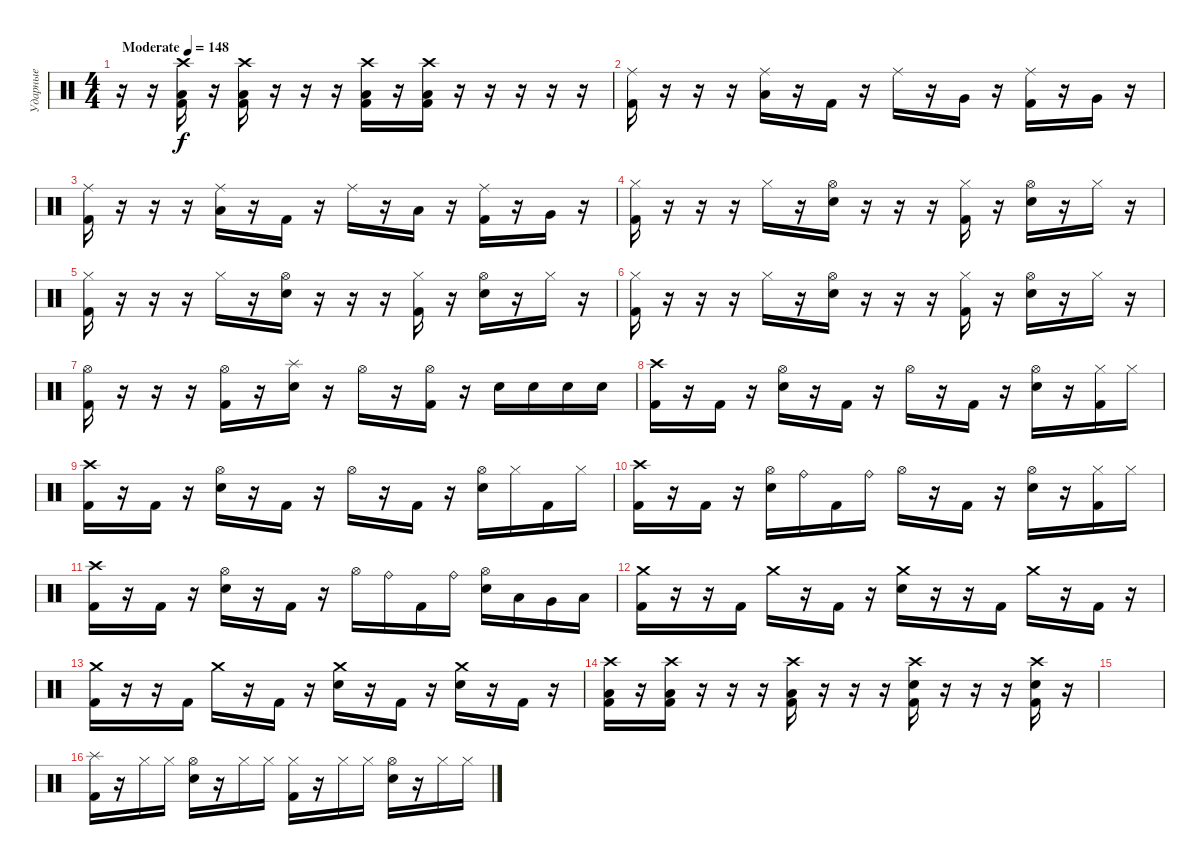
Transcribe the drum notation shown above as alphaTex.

\track ("Ударные" "Ударные") {instrument percussion}
\staff {score}
\articulation defaults
\ts (4 4)
\tempo (148 "Moderate")
\clef neutral
\ks c
r.16{dy f} r.16 ("Crash high (hit)" "Low Tom (hit)" "Kick (hit) 2").16 r.16 ("Crash high (hit)" "Low Tom (hit)" "Kick (hit) 2").16 r.16 r.16 r.16 ("Crash high (hit)" "Low Tom (hit)" "Kick (hit) 2").16 r.16 ("Crash high (hit)" "Low Tom (hit)" "Kick (hit) 2").16 r.16 r.16 r.16 r.16 r.16 |
("Ride (middle)" "Kick (hit) 2").16 r.16 r.16 r.16 ("Ride (middle)" "Low Floor Tom (hit)").16 r.16 "Kick (hit) 2".16 r.16 "Ride (middle)".16 r.16 "Very Low Tom (hit)".16 r.16 ("Ride (middle)" "Kick (hit) 2").16 r.16 "Very Low Tom (hit)".16 r.16 |
("Ride (middle)" "Kick (hit) 2").16 r.16 r.16 r.16 ("Ride (middle)" "Low Floor Tom (hit)").16 r.16 "Kick (hit) 2".16 r.16 "Ride (middle)".16 r.16 "Low Tom (hit)".16 r.16 ("Ride (middle)" "Kick (hit) 2").16 r.16 "Very Low Tom (hit)".16 r.16 |
("Hi-Hat (closed)" "Kick (hit) 2").16 r.16 r.16 r.16 "Hi-Hat (closed)".16 r.16 ("Hi-Hat (open)" "Electric Snare (hit)").16 r.16 r.16 r.16 ("Hi-Hat (closed)" "Kick (hit) 2").16 r.16 ("Hi-Hat (open)" "Electric Snare (hit)").16 r.16 "Hi-Hat (closed)".16 r.16 |
("Hi-Hat (closed)" "Kick (hit) 2").16 r.16 r.16 r.16 "Hi-Hat (closed)".16 r.16 ("Hi-Hat (open)" "Electric Snare (hit)").16 r.16 r.16 r.16 ("Hi-Hat (closed)" "Kick (hit) 2").16 r.16 ("Hi-Hat (open)" "Electric Snare (hit)").16 r.16 "Hi-Hat (closed)".16 r.16 |
("Hi-Hat (closed)" "Kick (hit) 2").16 r.16 r.16 r.16 "Hi-Hat (closed)".16 r.16 ("Hi-Hat (open)" "Electric Snare (hit)").16 r.16 r.16 r.16 ("Hi-Hat (closed)" "Kick (hit) 2").16 r.16 ("Hi-Hat (open)" "Electric Snare (hit)").16 r.16 "Hi-Hat (closed)".16 r.16 |
("Hi-Hat (open)" "Kick (hit) 2").16 r.16 r.16 r.16 ("Hi-Hat (open)" "Kick (hit) 2").16 r.16 ("Splash (hit)" "Electric Snare (hit)").16 r.16 "Hi-Hat (open)".16 r.16 ("Hi-Hat (open)" "Kick (hit) 2").16 r.16 "Electric Snare (hit)".16 "Electric Snare (hit)".16 "Electric Snare (hit)".16 "Electric Snare (hit)".16 |
("Crash high (hit)" "Kick (hit) 2").16 r.16 "Kick (hit) 2".16 r.16 ("Hi-Hat (open)" "Electric Snare (hit)").16 r.16 "Kick (hit) 2".16 r.16 "Hi-Hat (open)".16 r.16 "Kick (hit) 2".16 r.16 ("Hi-Hat (open)" "Electric Snare (hit)").16 r.16 ("Hi-Hat (closed)" "Kick (hit) 2").16 "Hi-Hat (closed)".16 |
("Crash high (hit)" "Kick (hit) 2").16 r.16 "Kick (hit) 2".16 r.16 ("Hi-Hat (open)" "Electric Snare (hit)").16 r.16 "Kick (hit) 2".16 r.16 "Hi-Hat (open)".16 r.16 "Kick (hit) 2".16 r.16 ("Hi-Hat (open)" "Electric Snare (hit)").16 "Hi-Hat (closed)".16 "Kick (hit) 2".16 "Hi-Hat (closed)".16 |
("Crash high (hit)" "Kick (hit) 2").16 r.16 "Kick (hit) 2".16 r.16 ("Hi-Hat (open)" "Electric Snare (hit)").16 "Ride (bell)".16 "Kick (hit) 2".16 "Ride (bell)".16 "Hi-Hat (open)".16 r.16 "Kick (hit) 2".16 r.16 ("Hi-Hat (open)" "Electric Snare (hit)").16 r.16 ("Hi-Hat (closed)" "Kick (hit) 2").16 "Hi-Hat (closed)".16 |
("Crash high (hit)" "Kick (hit) 2").16 r.16 "Kick (hit) 2".16 r.16 ("Hi-Hat (open)" "Electric Snare (hit)").16 r.16 "Kick (hit) 2".16 r.16 "Hi-Hat (open)".16 "Ride (bell)".16 "Kick (hit) 2".16 "Ride (bell)".16 ("Hi-Hat (open)" "Electric Snare (hit)").16 "Low Tom (hit)".16 "Very Low Tom (hit)".16 "Low Floor Tom (hit)".16 |
("Crash medium (hit)" "Kick (hit) 2").16 r.16 r.16 "Kick (hit) 2".16 "Crash medium (hit)".16 r.16 "Kick (hit) 2".16 r.16 ("Crash medium (hit)" "Electric Snare (hit)").16 r.16 r.16 "Kick (hit) 2".16 "Crash medium (hit)".16 r.16 "Kick (hit) 2".16 r.16 |
("Crash medium (hit)" "Kick (hit) 2").16 r.16 r.16 "Kick (hit) 2".16 "Crash medium (hit)".16 r.16 "Kick (hit) 2".16 r.16 ("Crash medium (hit)" "Electric Snare (hit)").16 r.16 "Kick (hit) 2".16 r.16 ("Crash medium (hit)" "Electric Snare (hit)").16 r.16 "Kick (hit) 2".16 r.16 |
("Crash high (hit)" "Low Tom (hit)" "Kick (hit) 2").16 r.16 ("Crash high (hit)" "Low Tom (hit)" "Kick (hit) 2").16 r.16 r.16 r.16 ("Crash high (hit)" "Low Tom (hit)" "Kick (hit) 2").16 r.16 r.16 r.16 ("Crash high (hit)" "Electric Snare (hit)" "Kick (hit) 2").16 r.16 r.16 r.16 ("Crash high (hit)" "Electric Snare (hit)" "Kick (hit) 2").16 r.16 |
|
("Splash (hit)" "Kick (hit) 2").16 r.16 "Hi-Hat (closed)".16 "Hi-Hat (closed)".16 ("Hi-Hat (open)" "Electric Snare (hit)").16 r.16 "Hi-Hat (closed)".16 "Hi-Hat (closed)".16 ("Hi-Hat (closed)" "Kick (hit) 2").16 r.16 "Hi-Hat (closed)".16 "Hi-Hat (closed)".16 ("Electric Snare (hit)" "Hi-Hat (open)").16 r.16 "Hi-Hat (closed)".16 "Hi-Hat (closed)".16
